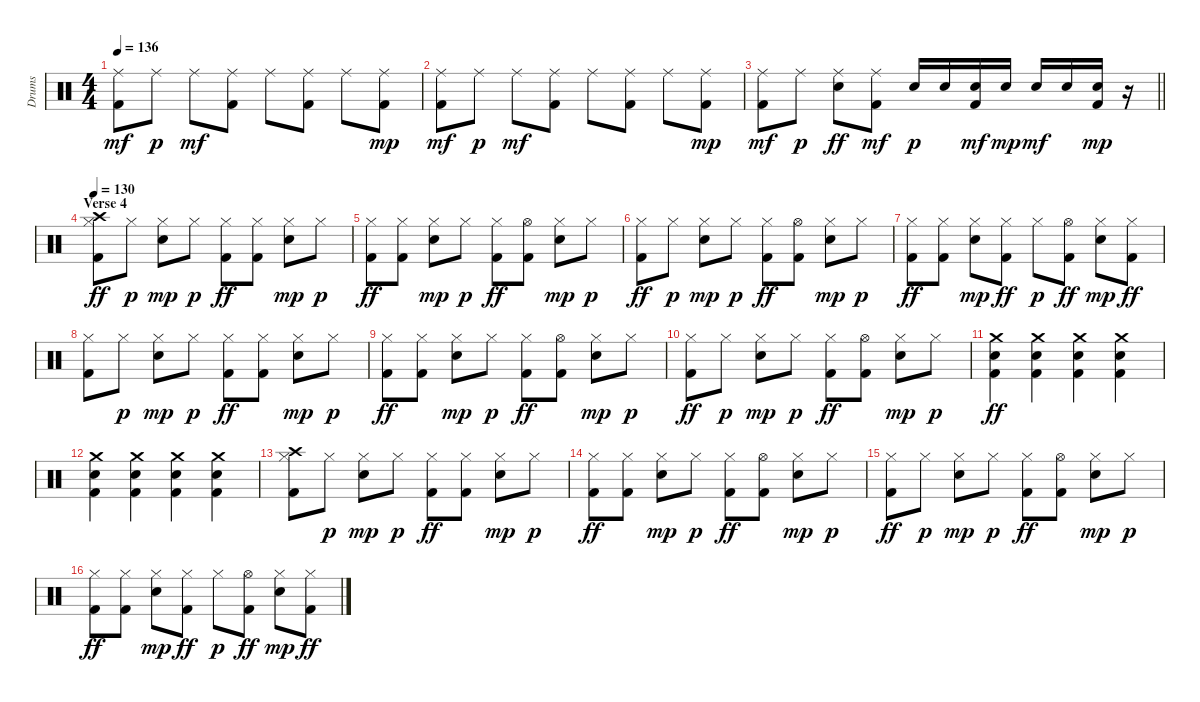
\track ("Drums" "Drums") {instrument percussion}
\staff {score}
\articulation defaults
\ts (4 4)
\tempo 136
\clef neutral
\ks c
("Ride (middle)" "Kick (hit) 2").8{dy mf} "Ride (middle)".8{dy p} "Ride (middle)".8{dy mf} ("Ride (middle)" "Kick (hit) 2").8 "Ride (middle)".8 ("Ride (middle)" "Kick (hit) 2").8 "Ride (middle)".8 ("Ride (middle)" "Kick (hit) 2").8{dy mp} |
("Ride (middle)" "Kick (hit) 2").8{dy mf} "Ride (middle)".8{dy p} "Ride (middle)".8{dy mf} ("Ride (middle)" "Kick (hit) 2").8 "Ride (middle)".8 ("Ride (middle)" "Kick (hit) 2").8 "Ride (middle)".8 ("Ride (middle)" "Kick (hit) 2").8{dy mp} |
\barLineRight lightlight
("Ride (middle)" "Kick (hit) 2").8{dy mf} "Ride (middle)".8{dy p} ("Ride (middle)" "Snare (hit) 2").8{dy ff} ("Ride (middle)" "Kick (hit) 2").8{dy mf} "Snare (hit) 2".16{dy p} "Snare (hit) 2".16 ("Snare (hit) 2" "Kick (hit) 2").16{dy mf} "Snare (hit) 2".16{dy mp} "Snare (hit) 2".16{dy mf} "Snare (hit) 2".16 ("Snare (hit) 2" "Kick (hit) 2").16{dy mp} r.16 |
\section ("" "Verse 4")
\tempo 130
("Crash high (hit)" "Hi-Hat (closed)" "Kick (hit) 2").8{dy ff} "Hi-Hat (closed)".8{dy p} ("Hi-Hat (closed)" "Snare (hit) 2").8{dy mp} "Hi-Hat (closed)".8{dy p} ("Hi-Hat (closed)" "Kick (hit) 2").8{dy ff} ("Hi-Hat (closed)" "Kick (hit) 2").8 ("Hi-Hat (closed)" "Snare (hit) 2").8{dy mp} "Hi-Hat (closed)".8{dy p} |
("Hi-Hat (closed)" "Kick (hit) 2").8{dy ff} ("Hi-Hat (closed)" "Kick (hit) 2").8 ("Hi-Hat (closed)" "Snare (hit) 2").8{dy mp} "Hi-Hat (closed)".8{dy p} ("Hi-Hat (closed)" "Kick (hit) 2").8{dy ff} ("Hi-Hat (open)" "Kick (hit) 2").8 ("Hi-Hat (closed)" "Snare (hit) 2").8{dy mp} "Hi-Hat (closed)".8{dy p} |
("Hi-Hat (closed)" "Kick (hit) 2").8{dy ff} "Hi-Hat (closed)".8{dy p} ("Hi-Hat (closed)" "Snare (hit) 2").8{dy mp} "Hi-Hat (closed)".8{dy p} ("Hi-Hat (closed)" "Kick (hit) 2").8{dy ff} ("Hi-Hat (open)" "Kick (hit) 2").8 ("Hi-Hat (closed)" "Snare (hit) 2").8{dy mp} "Hi-Hat (closed)".8{dy p} |
("Hi-Hat (closed)" "Kick (hit) 2").8{dy ff} ("Hi-Hat (closed)" "Kick (hit) 2").8 ("Hi-Hat (closed)" "Snare (hit) 2").8{dy mp} ("Hi-Hat (closed)" "Kick (hit) 2").8{dy ff} "Hi-Hat (closed)".8{dy p} ("Hi-Hat (open)" "Kick (hit) 2").8{dy ff} ("Hi-Hat (closed)" "Snare (hit) 2").8{dy mp} ("Hi-Hat (closed)" "Kick (hit) 2").8{dy ff} |
("Hi-Hat (closed)" "Kick (hit) 2").8 "Hi-Hat (closed)".8{dy p} ("Hi-Hat (closed)" "Snare (hit) 2").8{dy mp} "Hi-Hat (closed)".8{dy p} ("Hi-Hat (closed)" "Kick (hit) 2").8{dy ff} ("Hi-Hat (closed)" "Kick (hit) 2").8 ("Hi-Hat (closed)" "Snare (hit) 2").8{dy mp} "Hi-Hat (closed)".8{dy p} |
("Hi-Hat (closed)" "Kick (hit) 2").8{dy ff} ("Hi-Hat (closed)" "Kick (hit) 2").8 ("Hi-Hat (closed)" "Snare (hit) 2").8{dy mp} "Hi-Hat (closed)".8{dy p} ("Hi-Hat (closed)" "Kick (hit) 2").8{dy ff} ("Hi-Hat (open)" "Kick (hit) 2").8 ("Hi-Hat (closed)" "Snare (hit) 2").8{dy mp} "Hi-Hat (closed)".8{dy p} |
("Hi-Hat (closed)" "Kick (hit) 2").8{dy ff} "Hi-Hat (closed)".8{dy p} ("Hi-Hat (closed)" "Snare (hit) 2").8{dy mp} "Hi-Hat (closed)".8{dy p} ("Hi-Hat (closed)" "Kick (hit) 2").8{dy ff} ("Hi-Hat (open)" "Kick (hit) 2").8 ("Hi-Hat (closed)" "Snare (hit) 2").8{dy mp} "Hi-Hat (closed)".8{dy p} |
("Crash medium (hit)" "Snare (hit) 2" "Kick (hit) 2").4{dy ff} ("Crash medium (hit)" "Snare (hit) 2" "Kick (hit) 2").4 ("Crash medium (hit)" "Snare (hit) 2" "Kick (hit) 2").4 ("Crash medium (hit)" "Snare (hit) 2" "Kick (hit) 2").4 |
("Crash medium (hit)" "Snare (hit) 2" "Kick (hit) 2").4 ("Crash medium (hit)" "Snare (hit) 2" "Kick (hit) 2").4 ("Crash medium (hit)" "Snare (hit) 2" "Kick (hit) 2").4 ("Crash medium (hit)" "Snare (hit) 2" "Kick (hit) 2").4 |
("Crash high (hit)" "Hi-Hat (closed)" "Kick (hit) 2").8 "Hi-Hat (closed)".8{dy p} ("Hi-Hat (closed)" "Snare (hit) 2").8{dy mp} "Hi-Hat (closed)".8{dy p} ("Hi-Hat (closed)" "Kick (hit) 2").8{dy ff} ("Hi-Hat (closed)" "Kick (hit) 2").8 ("Hi-Hat (closed)" "Snare (hit) 2").8{dy mp} "Hi-Hat (closed)".8{dy p} |
("Hi-Hat (closed)" "Kick (hit) 2").8{dy ff} ("Hi-Hat (closed)" "Kick (hit) 2").8 ("Hi-Hat (closed)" "Snare (hit) 2").8{dy mp} "Hi-Hat (closed)".8{dy p} ("Hi-Hat (closed)" "Kick (hit) 2").8{dy ff} ("Hi-Hat (open)" "Kick (hit) 2").8 ("Hi-Hat (closed)" "Snare (hit) 2").8{dy mp} "Hi-Hat (closed)".8{dy p} |
("Hi-Hat (closed)" "Kick (hit) 2").8{dy ff} "Hi-Hat (closed)".8{dy p} ("Hi-Hat (closed)" "Snare (hit) 2").8{dy mp} "Hi-Hat (closed)".8{dy p} ("Hi-Hat (closed)" "Kick (hit) 2").8{dy ff} ("Hi-Hat (open)" "Kick (hit) 2").8 ("Hi-Hat (closed)" "Snare (hit) 2").8{dy mp} "Hi-Hat (closed)".8{dy p} |
("Hi-Hat (closed)" "Kick (hit) 2").8{dy ff} ("Hi-Hat (closed)" "Kick (hit) 2").8 ("Hi-Hat (closed)" "Snare (hit) 2").8{dy mp} ("Hi-Hat (closed)" "Kick (hit) 2").8{dy ff} "Hi-Hat (closed)".8{dy p} ("Hi-Hat (open)" "Kick (hit) 2").8{dy ff} ("Hi-Hat (closed)" "Snare (hit) 2").8{dy mp} ("Hi-Hat (closed)" "Kick (hit) 2").8{dy ff}
